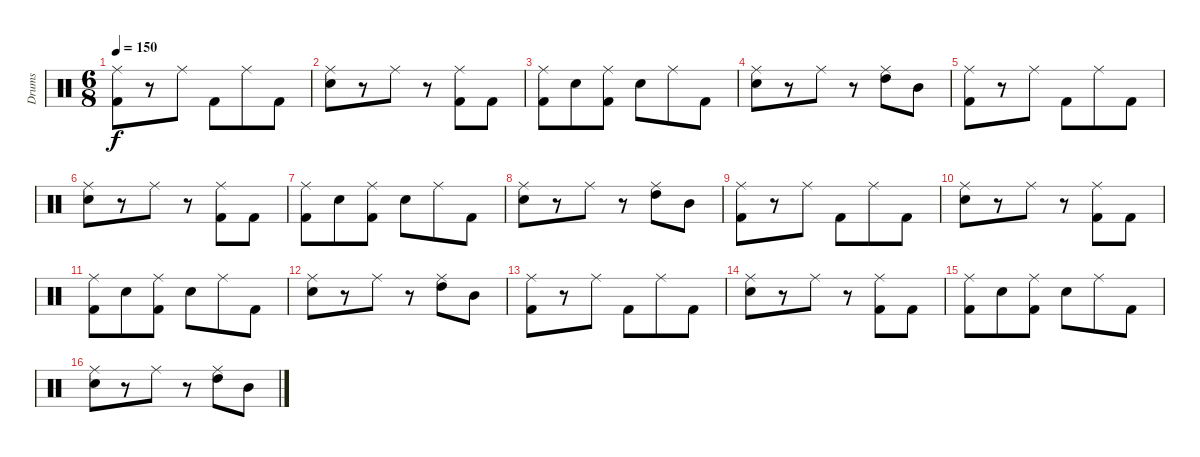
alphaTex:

\track ("Drums" "Drums") {instrument percussion}
\staff {score}
\articulation defaults
\ts (6 8)
\tempo 150
\clef neutral
\ks c
("Ride (middle)" "Kick (hit) 2").8{dy f} r.8 "Ride (middle)".8 "Kick (hit) 2".8 "Ride (middle)".8 "Kick (hit) 2".8 |
("Ride (middle)" "Electric Snare (hit)").8 r.8 "Ride (middle)".8 r.8 ("Ride (middle)" "Kick (hit) 2").8 "Kick (hit) 2".8 |
("Ride (middle)" "Kick (hit) 2").8 "Electric Snare (hit)".8 ("Ride (middle)" "Kick (hit) 2").8 "Electric Snare (hit)".8 "Ride (middle)".8 "Kick (hit) 2".8 |
("Ride (middle)" "Electric Snare (hit)").8 r.8 "Ride (middle)".8 r.8 ("Ride (middle)" "High Tom (hit)").8 "Mid Tom (hit)".8 |
("Ride (middle)" "Kick (hit) 2").8 r.8 "Ride (middle)".8 "Kick (hit) 2".8 "Ride (middle)".8 "Kick (hit) 2".8 |
("Ride (middle)" "Electric Snare (hit)").8 r.8 "Ride (middle)".8 r.8 ("Ride (middle)" "Kick (hit) 2").8 "Kick (hit) 2".8 |
("Ride (middle)" "Kick (hit) 2").8 "Electric Snare (hit)".8 ("Ride (middle)" "Kick (hit) 2").8 "Electric Snare (hit)".8 "Ride (middle)".8 "Kick (hit) 2".8 |
("Ride (middle)" "Electric Snare (hit)").8 r.8 "Ride (middle)".8 r.8 ("Ride (middle)" "High Tom (hit)").8 "Mid Tom (hit)".8 |
("Ride (middle)" "Kick (hit) 2").8 r.8 "Ride (middle)".8 "Kick (hit) 2".8 "Ride (middle)".8 "Kick (hit) 2".8 |
("Ride (middle)" "Electric Snare (hit)").8 r.8 "Ride (middle)".8 r.8 ("Ride (middle)" "Kick (hit) 2").8 "Kick (hit) 2".8 |
("Ride (middle)" "Kick (hit) 2").8 "Electric Snare (hit)".8 ("Ride (middle)" "Kick (hit) 2").8 "Electric Snare (hit)".8 "Ride (middle)".8 "Kick (hit) 2".8 |
("Ride (middle)" "Electric Snare (hit)").8 r.8 "Ride (middle)".8 r.8 ("Ride (middle)" "High Tom (hit)").8 "Mid Tom (hit)".8 |
("Ride (middle)" "Kick (hit) 2").8 r.8 "Ride (middle)".8 "Kick (hit) 2".8 "Ride (middle)".8 "Kick (hit) 2".8 |
("Ride (middle)" "Electric Snare (hit)").8 r.8 "Ride (middle)".8 r.8 ("Ride (middle)" "Kick (hit) 2").8 "Kick (hit) 2".8 |
("Ride (middle)" "Kick (hit) 2").8 "Electric Snare (hit)".8 ("Ride (middle)" "Kick (hit) 2").8 "Electric Snare (hit)".8 "Ride (middle)".8 "Kick (hit) 2".8 |
("Ride (middle)" "Electric Snare (hit)").8 r.8 "Ride (middle)".8 r.8 ("Ride (middle)" "High Tom (hit)").8 "Mid Tom (hit)".8
